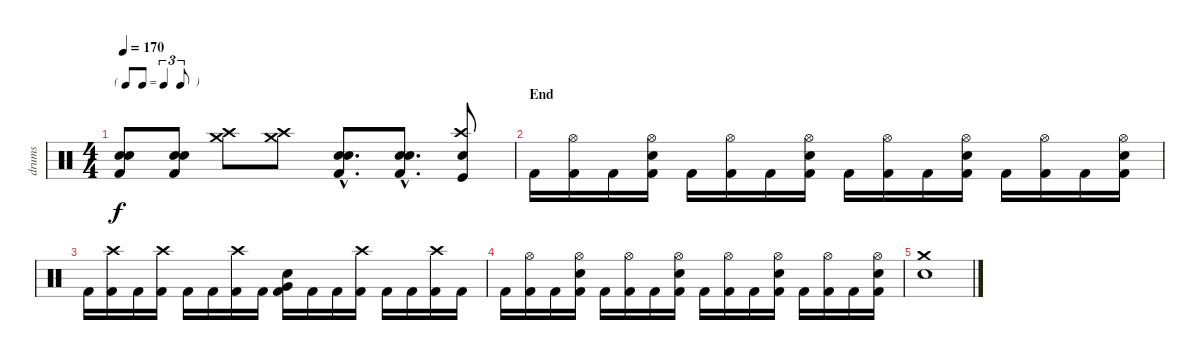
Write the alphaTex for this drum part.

\track ("drums" "drums") {instrument percussion}
\staff {score}
\articulation defaults
\ts (4 4)
\tf triplet8th
\tempo 170
\clef neutral
\ks c
("Electric Snare (hit)" "Snare (hit) 2" "Kick (hit) 2").8{dy f} ("Electric Snare (hit)" "Snare (hit) 2" "Kick (hit) 2").8 ("Crash medium (hit)" "Crash high (hit)").8 ("Crash medium (hit)" "Crash high (hit)").8 ("Electric Snare (hit)"{hac} "Snare (hit) 2"{hac} "Kick (hit) 2"{hac}).8{d} ("Electric Snare (hit)"{hac} "Snare (hit) 2"{hac} "Kick (hit) 2"{hac}).8{d} ("Crash high (hit)" "Snare (hit) 2" "Kick (hit)").8 |
\section ("" "End")
"Kick (hit) 2".16 ("Kick (hit) 2" "Hi-Hat (open)").16 "Kick (hit) 2".16 ("Kick (hit) 2" "Electric Snare (hit)" "Hi-Hat (open)").16 "Kick (hit) 2".16 ("Kick (hit) 2" "Hi-Hat (open)").16 "Kick (hit) 2".16 ("Kick (hit) 2" "Electric Snare (hit)" "Hi-Hat (open)").16 "Kick (hit) 2".16 ("Kick (hit) 2" "Hi-Hat (open)").16 "Kick (hit) 2".16 ("Kick (hit) 2" "Electric Snare (hit)" "Hi-Hat (open)").16 "Kick (hit) 2".16 ("Kick (hit) 2" "Hi-Hat (open)").16 "Kick (hit) 2".16 ("Kick (hit) 2" "Electric Snare (hit)" "Hi-Hat (open)").16 |
"Kick (hit) 2".16 ("Kick (hit) 2" "Crash high (hit)").16 "Kick (hit) 2".16 ("Kick (hit) 2" "Crash high (hit)").16 "Kick (hit) 2".16 "Kick (hit) 2".16 ("Kick (hit) 2" "Crash high (hit)").16 "Kick (hit) 2".16 ("Kick (hit) 2" "Electric Snare (hit)" "Very Low Tom (hit)").16 "Kick (hit) 2".16 "Kick (hit) 2".16 ("Kick (hit) 2" "Crash high (hit)").16 "Kick (hit) 2".16 "Kick (hit) 2".16 ("Kick (hit) 2" "Crash high (hit)").16 "Kick (hit) 2".16 |
"Kick (hit) 2".16 ("Kick (hit) 2" "Hi-Hat (open)").16 "Kick (hit) 2".16 ("Kick (hit) 2" "Electric Snare (hit)" "Hi-Hat (open)").16 "Kick (hit) 2".16 ("Kick (hit) 2" "Hi-Hat (open)").16 "Kick (hit) 2".16 ("Kick (hit) 2" "Electric Snare (hit)" "Hi-Hat (open)").16 "Kick (hit) 2".16 ("Kick (hit) 2" "Hi-Hat (open)").16 "Kick (hit) 2".16 ("Kick (hit) 2" "Electric Snare (hit)" "Hi-Hat (open)").16 "Kick (hit) 2".16 ("Kick (hit) 2" "Hi-Hat (open)").16 "Kick (hit) 2".16 ("Kick (hit) 2" "Electric Snare (hit)" "Hi-Hat (open)").16 |
("Crash medium (hit)" "Electric Snare (hit)").1
